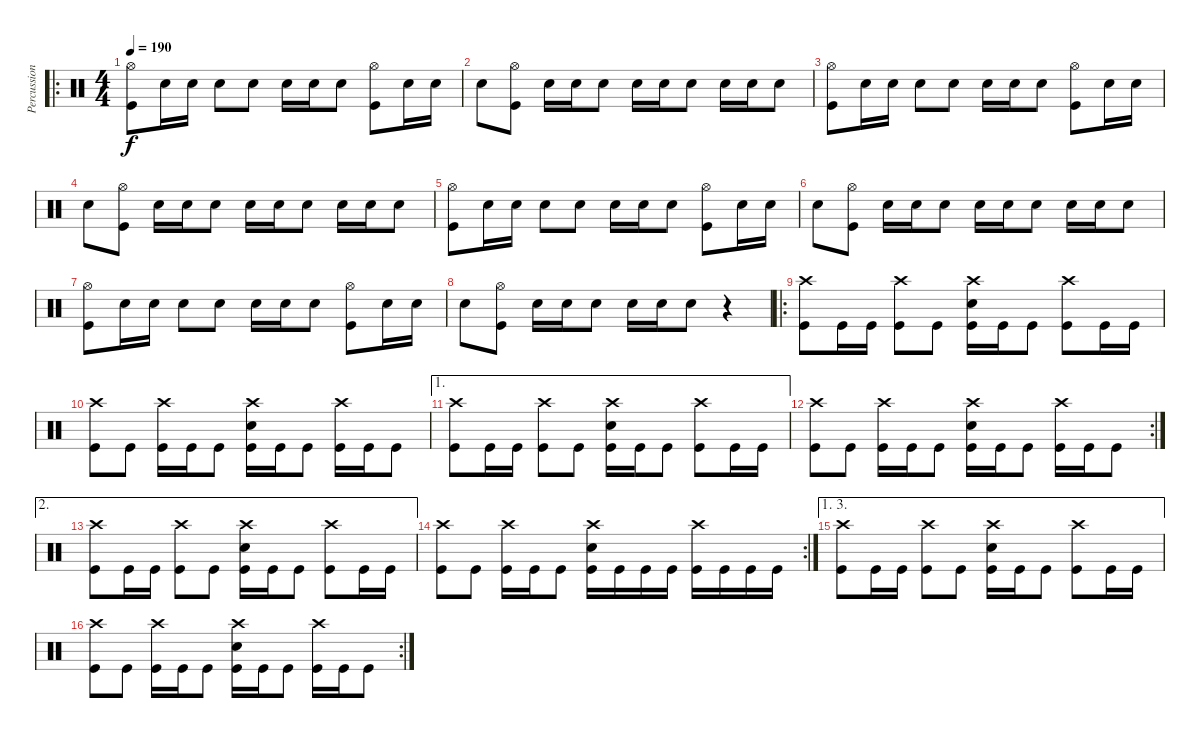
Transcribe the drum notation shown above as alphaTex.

\track ("Percussion" "Percussion") {instrument percussion}
\staff {score}
\articulation defaults
\ro
\ts (4 4)
\tempo 190
\clef neutral
\ks c
("Hi-Hat (open)" "Kick (hit)").8{dy f} "Electric Snare (hit)".16 "Electric Snare (hit)".16 "Electric Snare (hit)".8 "Electric Snare (hit)".8 "Electric Snare (hit)".16 "Electric Snare (hit)".16 "Electric Snare (hit)".8 ("Hi-Hat (open)" "Kick (hit)").8 "Electric Snare (hit)".16 "Electric Snare (hit)".16 |
"Electric Snare (hit)".8 ("Hi-Hat (open)" "Kick (hit)").8 "Electric Snare (hit)".16 "Electric Snare (hit)".16 "Electric Snare (hit)".8 "Electric Snare (hit)".16 "Electric Snare (hit)".16 "Electric Snare (hit)".8 "Electric Snare (hit)".16 "Electric Snare (hit)".16 "Electric Snare (hit)".8 |
("Hi-Hat (open)" "Kick (hit)").8 "Electric Snare (hit)".16 "Electric Snare (hit)".16 "Electric Snare (hit)".8 "Electric Snare (hit)".8 "Electric Snare (hit)".16 "Electric Snare (hit)".16 "Electric Snare (hit)".8 ("Hi-Hat (open)" "Kick (hit)").8 "Electric Snare (hit)".16 "Electric Snare (hit)".16 |
"Electric Snare (hit)".8 ("Hi-Hat (open)" "Kick (hit)").8 "Electric Snare (hit)".16 "Electric Snare (hit)".16 "Electric Snare (hit)".8 "Electric Snare (hit)".16 "Electric Snare (hit)".16 "Electric Snare (hit)".8 "Electric Snare (hit)".16 "Electric Snare (hit)".16 "Electric Snare (hit)".8 |
("Hi-Hat (open)" "Kick (hit)").8 "Electric Snare (hit)".16 "Electric Snare (hit)".16 "Electric Snare (hit)".8 "Electric Snare (hit)".8 "Electric Snare (hit)".16 "Electric Snare (hit)".16 "Electric Snare (hit)".8 ("Hi-Hat (open)" "Kick (hit)").8 "Electric Snare (hit)".16 "Electric Snare (hit)".16 |
"Electric Snare (hit)".8 ("Hi-Hat (open)" "Kick (hit)").8 "Electric Snare (hit)".16 "Electric Snare (hit)".16 "Electric Snare (hit)".8 "Electric Snare (hit)".16 "Electric Snare (hit)".16 "Electric Snare (hit)".8 "Electric Snare (hit)".16 "Electric Snare (hit)".16 "Electric Snare (hit)".8 |
("Hi-Hat (open)" "Kick (hit)").8 "Electric Snare (hit)".16 "Electric Snare (hit)".16 "Electric Snare (hit)".8 "Electric Snare (hit)".8 "Electric Snare (hit)".16 "Electric Snare (hit)".16 "Electric Snare (hit)".8 ("Hi-Hat (open)" "Kick (hit)").8 "Electric Snare (hit)".16 "Electric Snare (hit)".16 |
"Electric Snare (hit)".8 ("Hi-Hat (open)" "Kick (hit)").8 "Electric Snare (hit)".16 "Electric Snare (hit)".16 "Electric Snare (hit)".8 "Electric Snare (hit)".16 "Electric Snare (hit)".16 "Electric Snare (hit)".8 r.4 |
\ro
("Crash high (hit)" "Kick (hit)").8 "Kick (hit)".16 "Kick (hit)".16 ("Crash high (hit)" "Kick (hit)").8 "Kick (hit)".8 ("Crash high (hit)" "Electric Snare (hit)" "Kick (hit)").16 "Kick (hit)".16 "Kick (hit)".8 ("Crash high (hit)" "Kick (hit)").8 "Kick (hit)".16 "Kick (hit)".16 |
("Crash high (hit)" "Kick (hit)").8 "Kick (hit)".8 ("Crash high (hit)" "Kick (hit)").16 "Kick (hit)".16 "Kick (hit)".8 ("Crash high (hit)" "Electric Snare (hit)" "Kick (hit)").16 "Kick (hit)".16 "Kick (hit)".8 ("Crash high (hit)" "Kick (hit)").16 "Kick (hit)".16 "Kick (hit)".8 |
\ae 1
("Crash high (hit)" "Kick (hit)").8 "Kick (hit)".16 "Kick (hit)".16 ("Crash high (hit)" "Kick (hit)").8 "Kick (hit)".8 ("Crash high (hit)" "Electric Snare (hit)" "Kick (hit)").16 "Kick (hit)".16 "Kick (hit)".8 ("Crash high (hit)" "Kick (hit)").8 "Kick (hit)".16 "Kick (hit)".16 |
\rc 2
("Crash high (hit)" "Kick (hit)").8 "Kick (hit)".8 ("Crash high (hit)" "Kick (hit)").16 "Kick (hit)".16 "Kick (hit)".8 ("Crash high (hit)" "Electric Snare (hit)" "Kick (hit)").16 "Kick (hit)".16 "Kick (hit)".8 ("Crash high (hit)" "Kick (hit)").16 "Kick (hit)".16 "Kick (hit)".8 |
\ae 2
("Crash high (hit)" "Kick (hit)").8 "Kick (hit)".16 "Kick (hit)".16 ("Crash high (hit)" "Kick (hit)").8 "Kick (hit)".8 ("Crash high (hit)" "Electric Snare (hit)" "Kick (hit)").16 "Kick (hit)".16 "Kick (hit)".8 ("Crash high (hit)" "Kick (hit)").8 "Kick (hit)".16 "Kick (hit)".16 |
\rc 2
("Crash high (hit)" "Kick (hit)").8 "Kick (hit)".8 ("Crash high (hit)" "Kick (hit)").16 "Kick (hit)".16 "Kick (hit)".8 ("Crash high (hit)" "Electric Snare (hit)" "Kick (hit)").16 "Kick (hit)".16 "Kick (hit)".16 "Kick (hit)".16 ("Crash high (hit)" "Kick (hit)").16 "Kick (hit)".16 "Kick (hit)".16 "Kick (hit)".16 |
\ae (1 3)
("Crash high (hit)" "Kick (hit)").8 "Kick (hit)".16 "Kick (hit)".16 ("Crash high (hit)" "Kick (hit)").8 "Kick (hit)".8 ("Crash high (hit)" "Electric Snare (hit)" "Kick (hit)").16 "Kick (hit)".16 "Kick (hit)".8 ("Crash high (hit)" "Kick (hit)").8 "Kick (hit)".16 "Kick (hit)".16 |
\rc 2
("Crash high (hit)" "Kick (hit)").8 "Kick (hit)".8 ("Crash high (hit)" "Kick (hit)").16 "Kick (hit)".16 "Kick (hit)".8 ("Crash high (hit)" "Electric Snare (hit)" "Kick (hit)").16 "Kick (hit)".16 "Kick (hit)".8 ("Crash high (hit)" "Kick (hit)").16 "Kick (hit)".16 "Kick (hit)".8
